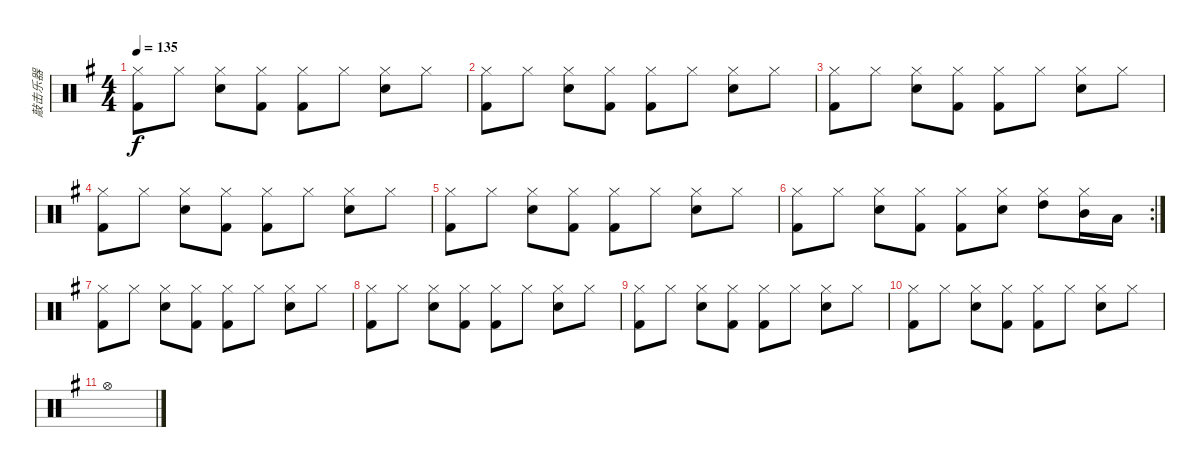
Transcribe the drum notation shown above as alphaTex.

\track ("敲击乐器" "敲击乐器") {instrument percussion}
\staff {score}
\articulation defaults
\ts (4 4)
\tempo 135
\clef neutral
\ks g
("Kick (hit) 2" "Hi-Hat (closed)").8{dy f} "Hi-Hat (closed)".8 ("Electric Snare (hit)" "Hi-Hat (closed)").8 ("Kick (hit) 2" "Hi-Hat (closed)").8 ("Kick (hit) 2" "Hi-Hat (closed)").8 "Hi-Hat (closed)".8 ("Electric Snare (hit)" "Hi-Hat (closed)").8 "Hi-Hat (closed)".8 |
("Kick (hit) 2" "Hi-Hat (closed)").8 "Hi-Hat (closed)".8 ("Electric Snare (hit)" "Hi-Hat (closed)").8 ("Kick (hit) 2" "Hi-Hat (closed)").8 ("Kick (hit) 2" "Hi-Hat (closed)").8 "Hi-Hat (closed)".8 ("Electric Snare (hit)" "Hi-Hat (closed)").8 "Hi-Hat (closed)".8 |
("Kick (hit) 2" "Hi-Hat (closed)").8 "Hi-Hat (closed)".8 ("Electric Snare (hit)" "Hi-Hat (closed)").8 ("Kick (hit) 2" "Hi-Hat (closed)").8 ("Kick (hit) 2" "Hi-Hat (closed)").8 "Hi-Hat (closed)".8 ("Electric Snare (hit)" "Hi-Hat (closed)").8 "Hi-Hat (closed)".8 |
("Kick (hit) 2" "Hi-Hat (closed)").8 "Hi-Hat (closed)".8 ("Electric Snare (hit)" "Hi-Hat (closed)").8 ("Kick (hit) 2" "Hi-Hat (closed)").8 ("Kick (hit) 2" "Hi-Hat (closed)").8 "Hi-Hat (closed)".8 ("Electric Snare (hit)" "Hi-Hat (closed)").8 "Hi-Hat (closed)".8 |
("Kick (hit) 2" "Hi-Hat (closed)").8 "Hi-Hat (closed)".8 ("Electric Snare (hit)" "Hi-Hat (closed)").8 ("Kick (hit) 2" "Hi-Hat (closed)").8 ("Kick (hit) 2" "Hi-Hat (closed)").8 "Hi-Hat (closed)".8 ("Electric Snare (hit)" "Hi-Hat (closed)").8 "Hi-Hat (closed)".8 |
\rc 2
("Kick (hit) 2" "Hi-Hat (closed)").8 "Hi-Hat (closed)".8 ("Electric Snare (hit)" "Hi-Hat (closed)").8 ("Kick (hit) 2" "Hi-Hat (closed)").8 ("Kick (hit) 2" "Hi-Hat (closed)").8 ("Hi-Hat (closed)" "Electric Snare (hit)").8 ("High Tom (hit)" "Hi-Hat (closed)").8 ("Hi-Hat (closed)" "Mid Tom (hit)").16 "Low Tom (hit)".16 |
("Kick (hit) 2" "Hi-Hat (closed)").8 "Hi-Hat (closed)".8 ("Electric Snare (hit)" "Hi-Hat (closed)").8 ("Kick (hit) 2" "Hi-Hat (closed)").8 ("Kick (hit) 2" "Hi-Hat (closed)").8 "Hi-Hat (closed)".8 ("Electric Snare (hit)" "Hi-Hat (closed)").8 "Hi-Hat (closed)".8 |
("Kick (hit) 2" "Hi-Hat (closed)").8 "Hi-Hat (closed)".8 ("Electric Snare (hit)" "Hi-Hat (closed)").8 ("Kick (hit) 2" "Hi-Hat (closed)").8 ("Kick (hit) 2" "Hi-Hat (closed)").8 "Hi-Hat (closed)".8 ("Electric Snare (hit)" "Hi-Hat (closed)").8 "Hi-Hat (closed)".8 |
("Kick (hit) 2" "Hi-Hat (closed)").8 "Hi-Hat (closed)".8 ("Electric Snare (hit)" "Hi-Hat (closed)").8 ("Kick (hit) 2" "Hi-Hat (closed)").8 ("Kick (hit) 2" "Hi-Hat (closed)").8 "Hi-Hat (closed)".8 ("Electric Snare (hit)" "Hi-Hat (closed)").8 "Hi-Hat (closed)".8 |
("Kick (hit) 2" "Hi-Hat (closed)").8 "Hi-Hat (closed)".8 ("Electric Snare (hit)" "Hi-Hat (closed)").8 ("Kick (hit) 2" "Hi-Hat (closed)").8 ("Kick (hit) 2" "Hi-Hat (closed)").8 "Hi-Hat (closed)".8 ("Electric Snare (hit)" "Hi-Hat (closed)").8 "Hi-Hat (closed)".8 |
"Hi-Hat (open)".1
